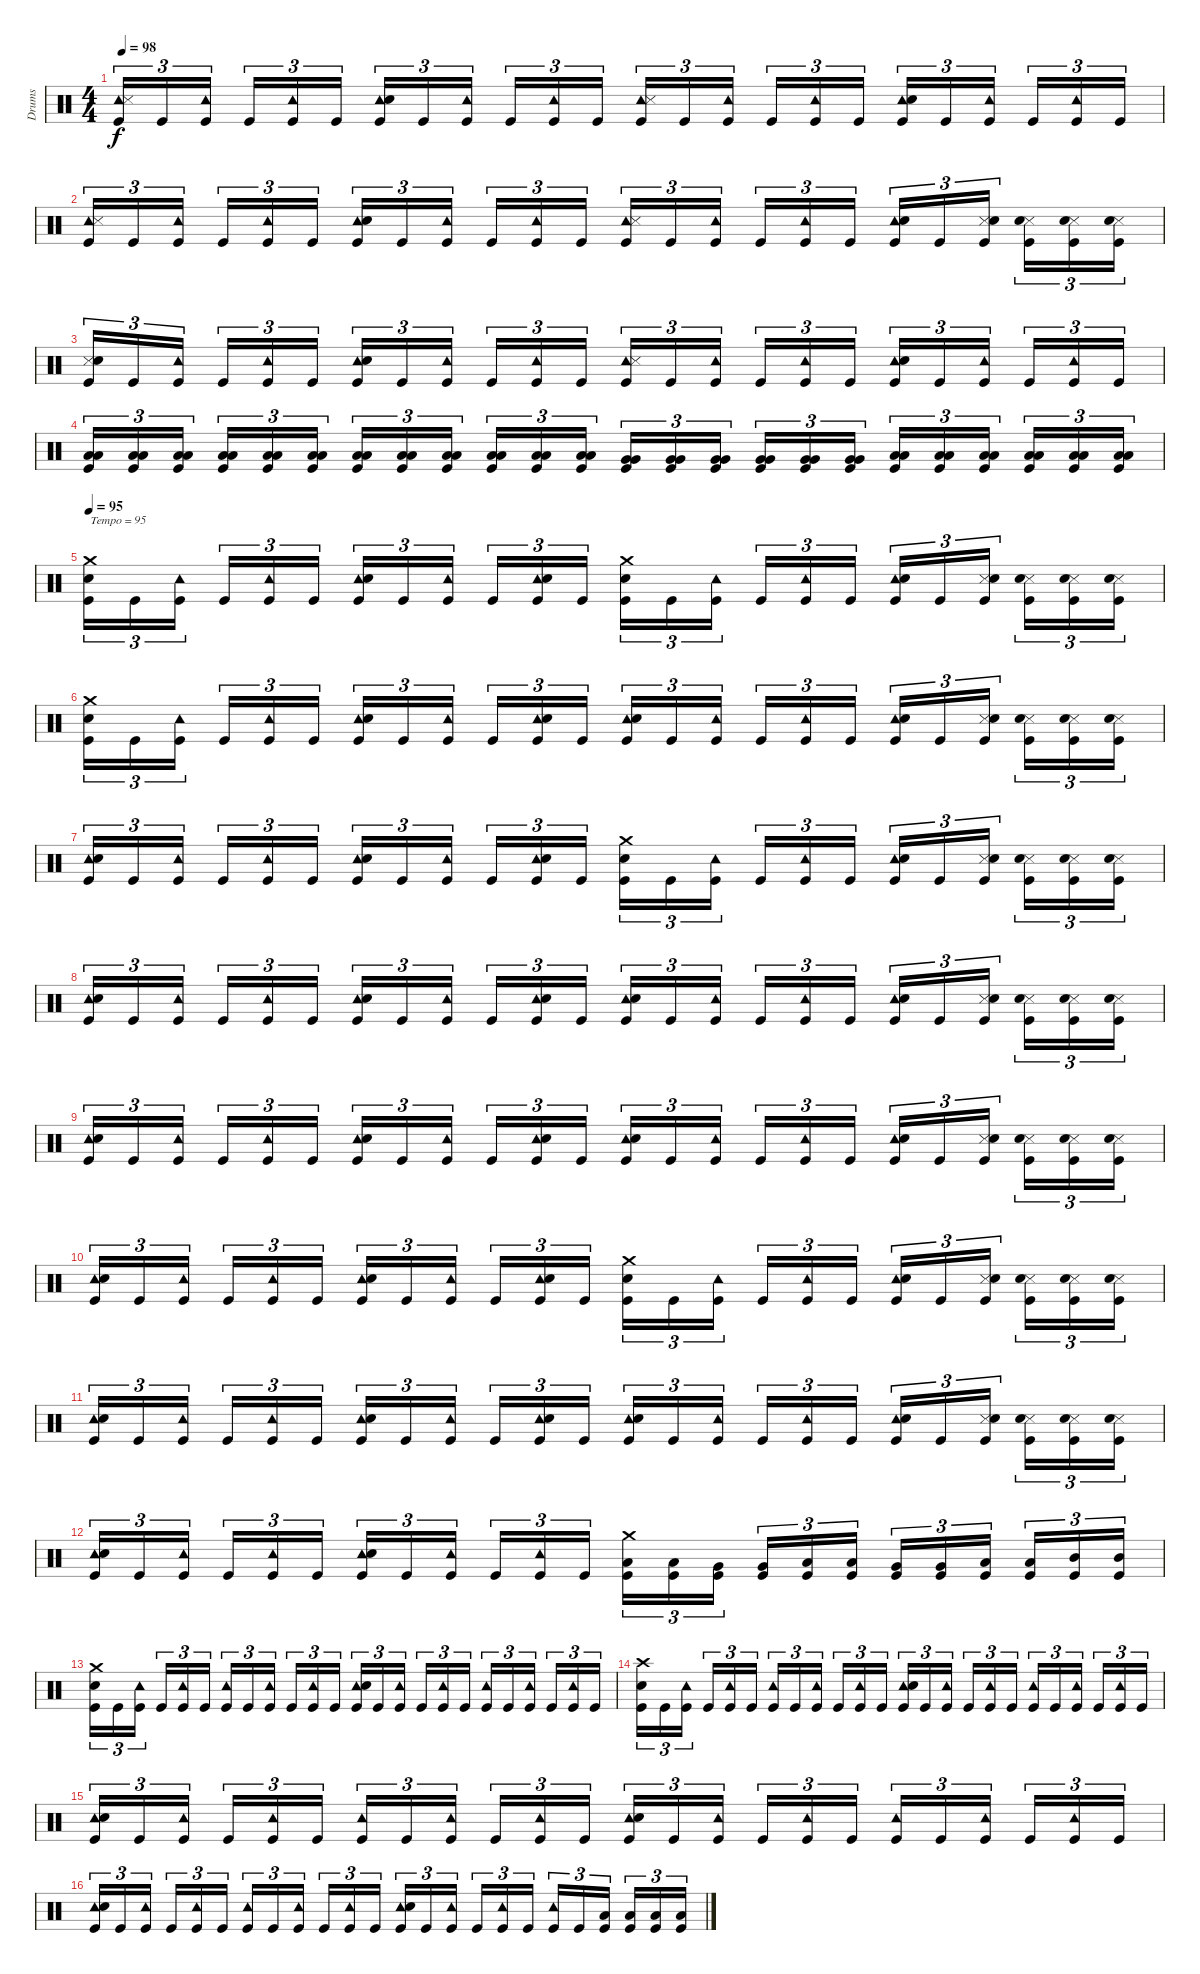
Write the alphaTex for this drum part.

\track ("Drums" "Drums") {instrument percussion}
\staff {score}
\articulation defaults
\ts (4 4)
\tempo 98
\clef neutral
\ks c
("Tambourine (hit)" "Snare (side stick) 3" "Kick (hit)").16{tu (3 2) dy f} "Kick (hit)".16{tu (3 2)} ("Tambourine (hit)" "Kick (hit)").16{tu (3 2)} "Kick (hit)".16{tu (3 2)} ("Tambourine (hit)" "Kick (hit)").16{tu (3 2)} "Kick (hit)".16{tu (3 2)} ("Tambourine (hit)" "Snare (hit) 2" "Kick (hit)").16{tu (3 2)} "Kick (hit)".16{tu (3 2)} ("Tambourine (hit)" "Kick (hit)").16{tu (3 2)} "Kick (hit)".16{tu (3 2)} ("Tambourine (hit)" "Kick (hit)").16{tu (3 2)} "Kick (hit)".16{tu (3 2)} ("Tambourine (hit)" "Snare (side stick) 3" "Kick (hit)").16{tu (3 2)} "Kick (hit)".16{tu (3 2)} ("Tambourine (hit)" "Kick (hit)").16{tu (3 2)} "Kick (hit)".16{tu (3 2)} ("Tambourine (hit)" "Kick (hit)").16{tu (3 2)} "Kick (hit)".16{tu (3 2)} ("Tambourine (hit)" "Snare (hit) 2" "Kick (hit)").16{tu (3 2)} "Kick (hit)".16{tu (3 2)} ("Tambourine (hit)" "Kick (hit)").16{tu (3 2)} "Kick (hit)".16{tu (3 2)} ("Tambourine (hit)" "Kick (hit)").16{tu (3 2)} "Kick (hit)".16{tu (3 2)} |
("Tambourine (hit)" "Snare (side stick) 3" "Kick (hit)").16{tu (3 2)} "Kick (hit)".16{tu (3 2)} ("Tambourine (hit)" "Kick (hit)").16{tu (3 2)} "Kick (hit)".16{tu (3 2)} ("Tambourine (hit)" "Kick (hit)").16{tu (3 2)} "Kick (hit)".16{tu (3 2)} ("Tambourine (hit)" "Snare (hit) 2" "Kick (hit)").16{tu (3 2)} "Kick (hit)".16{tu (3 2)} ("Tambourine (hit)" "Kick (hit)").16{tu (3 2)} "Kick (hit)".16{tu (3 2)} ("Tambourine (hit)" "Kick (hit)").16{tu (3 2)} "Kick (hit)".16{tu (3 2)} ("Tambourine (hit)" "Snare (side stick) 3" "Kick (hit)").16{tu (3 2)} "Kick (hit)".16{tu (3 2)} ("Tambourine (hit)" "Kick (hit)").16{tu (3 2)} "Kick (hit)".16{tu (3 2)} ("Tambourine (hit)" "Kick (hit)").16{tu (3 2)} "Kick (hit)".16{tu (3 2)} ("Tambourine (hit)" "Snare (hit) 2" "Kick (hit)").16{tu (3 2)} "Kick (hit)".16{tu (3 2)} ("Snare (side stick) 3" "Snare (hit) 2" "Kick (hit)").16{tu (3 2)} ("Snare (side stick) 3" "Snare (hit) 2" "Kick (hit)").16{tu (3 2)} ("Snare (side stick) 3" "Snare (hit) 2" "Kick (hit)").16{tu (3 2)} ("Snare (side stick) 3" "Snare (hit) 2" "Kick (hit)").16{tu (3 2)} |
("Snare (side stick) 3" "Snare (hit) 2" "Kick (hit)").16{tu (3 2)} "Kick (hit)".16{tu (3 2)} ("Tambourine (hit)" "Kick (hit)").16{tu (3 2)} "Kick (hit)".16{tu (3 2)} ("Tambourine (hit)" "Kick (hit)").16{tu (3 2)} "Kick (hit)".16{tu (3 2)} ("Tambourine (hit)" "Snare (hit) 2" "Kick (hit)").16{tu (3 2)} "Kick (hit)".16{tu (3 2)} ("Tambourine (hit)" "Kick (hit)").16{tu (3 2)} "Kick (hit)".16{tu (3 2)} ("Tambourine (hit)" "Kick (hit)").16{tu (3 2)} "Kick (hit)".16{tu (3 2)} ("Tambourine (hit)" "Snare (side stick) 3" "Kick (hit)").16{tu (3 2)} "Kick (hit)".16{tu (3 2)} ("Tambourine (hit)" "Kick (hit)").16{tu (3 2)} "Kick (hit)".16{tu (3 2)} ("Tambourine (hit)" "Kick (hit)").16{tu (3 2)} "Kick (hit)".16{tu (3 2)} ("Tambourine (hit)" "Snare (hit) 2" "Kick (hit)").16{tu (3 2)} "Kick (hit)".16{tu (3 2)} ("Tambourine (hit)" "Kick (hit)").16{tu (3 2)} "Kick (hit)".16{tu (3 2)} ("Tambourine (hit)" "Kick (hit)").16{tu (3 2)} "Kick (hit)".16{tu (3 2)} |
("Low Floor Tom (hit)" "Low Floor Tom (hit)" "Kick (hit)").16{tu (3 2)} ("Low Floor Tom (hit)" "Low Floor Tom (hit)" "Kick (hit)").16{tu (3 2)} ("Low Floor Tom (hit)" "Low Floor Tom (hit)" "Kick (hit)").16{tu (3 2)} ("Low Floor Tom (hit)" "Low Floor Tom (hit)" "Kick (hit)").16{tu (3 2)} ("Low Floor Tom (hit)" "Low Floor Tom (hit)" "Kick (hit)").16{tu (3 2)} ("Low Floor Tom (hit)" "Low Floor Tom (hit)" "Kick (hit)").16{tu (3 2)} ("Low Floor Tom (hit)" "Low Floor Tom (hit)" "Kick (hit)").16{tu (3 2)} ("Low Floor Tom (hit)" "Low Floor Tom (hit)" "Kick (hit)").16{tu (3 2)} ("Low Floor Tom (hit)" "Low Floor Tom (hit)" "Kick (hit)").16{tu (3 2)} ("Low Floor Tom (hit)" "Low Floor Tom (hit)" "Kick (hit)").16{tu (3 2)} ("Low Floor Tom (hit)" "Low Floor Tom (hit)" "Kick (hit)").16{tu (3 2)} ("Low Floor Tom (hit)" "Low Floor Tom (hit)" "Kick (hit)").16{tu (3 2)} ("Very Low Tom (hit)" "Very Low Tom (hit)" "Kick (hit)").16{tu (3 2)} ("Very Low Tom (hit)" "Very Low Tom (hit)" "Kick (hit)").16{tu (3 2)} ("Very Low Tom (hit)" "Very Low Tom (hit)" "Kick (hit)").16{tu (3 2)} ("Very Low Tom (hit)" "Very Low Tom (hit)" "Kick (hit)").16{tu (3 2)} ("Very Low Tom (hit)" "Very Low Tom (hit)" "Kick (hit)").16{tu (3 2)} ("Very Low Tom (hit)" "Very Low Tom (hit)" "Kick (hit)").16{tu (3 2)} ("Low Tom (hit)" "Low Tom (hit)" "Kick (hit)").16{tu (3 2)} ("Low Tom (hit)" "Low Tom (hit)" "Kick (hit)").16{tu (3 2)} ("Low Tom (hit)" "Low Tom (hit)" "Kick (hit)").16{tu (3 2)} ("Low Tom (hit)" "Low Tom (hit)" "Kick (hit)").16{tu (3 2)} ("Low Tom (hit)" "Low Tom (hit)" "Kick (hit)").16{tu (3 2)} ("Low Tom (hit)" "Low Tom (hit)" "Kick (hit)").16{tu (3 2)} |
\tempo 95
("Crash medium (hit)" "Snare (hit) 2" "Kick (hit)").16{tu (3 2) txt "Tempo = 95"} "Kick (hit)".16{tu (3 2)} ("Tambourine (hit)" "Kick (hit)").16{tu (3 2)} "Kick (hit)".16{tu (3 2)} ("Tambourine (hit)" "Kick (hit)").16{tu (3 2)} "Kick (hit)".16{tu (3 2)} ("Tambourine (hit)" "Snare (hit) 2" "Kick (hit)").16{tu (3 2)} "Kick (hit)".16{tu (3 2)} ("Tambourine (hit)" "Kick (hit)").16{tu (3 2)} "Kick (hit)".16{tu (3 2)} ("Tambourine (hit)" "Snare (hit) 2" "Kick (hit)").16{tu (3 2)} "Kick (hit)".16{tu (3 2)} ("Crash medium (hit)" "Snare (hit) 2" "Kick (hit)").16{tu (3 2)} "Kick (hit)".16{tu (3 2)} ("Tambourine (hit)" "Kick (hit)").16{tu (3 2)} "Kick (hit)".16{tu (3 2)} ("Tambourine (hit)" "Kick (hit)").16{tu (3 2)} "Kick (hit)".16{tu (3 2)} ("Tambourine (hit)" "Snare (hit) 2" "Kick (hit)").16{tu (3 2)} "Kick (hit)".16{tu (3 2)} ("Snare (side stick) 3" "Snare (hit) 2" "Kick (hit)").16{tu (3 2)} ("Snare (side stick) 3" "Snare (hit) 2" "Kick (hit)").16{tu (3 2)} ("Snare (side stick) 3" "Snare (hit) 2" "Kick (hit)").16{tu (3 2)} ("Snare (side stick) 3" "Snare (hit) 2" "Kick (hit)").16{tu (3 2)} |
("Crash medium (hit)" "Snare (hit) 2" "Kick (hit)").16{tu (3 2)} "Kick (hit)".16{tu (3 2)} ("Tambourine (hit)" "Kick (hit)").16{tu (3 2)} "Kick (hit)".16{tu (3 2)} ("Tambourine (hit)" "Kick (hit)").16{tu (3 2)} "Kick (hit)".16{tu (3 2)} ("Tambourine (hit)" "Snare (hit) 2" "Kick (hit)").16{tu (3 2)} "Kick (hit)".16{tu (3 2)} ("Tambourine (hit)" "Kick (hit)").16{tu (3 2)} "Kick (hit)".16{tu (3 2)} ("Tambourine (hit)" "Snare (hit) 2" "Kick (hit)").16{tu (3 2)} "Kick (hit)".16{tu (3 2)} ("Tambourine (hit)" "Snare (hit) 2" "Kick (hit)").16{tu (3 2)} "Kick (hit)".16{tu (3 2)} ("Tambourine (hit)" "Kick (hit)").16{tu (3 2)} "Kick (hit)".16{tu (3 2)} ("Tambourine (hit)" "Kick (hit)").16{tu (3 2)} "Kick (hit)".16{tu (3 2)} ("Tambourine (hit)" "Snare (hit) 2" "Kick (hit)").16{tu (3 2)} "Kick (hit)".16{tu (3 2)} ("Snare (side stick) 3" "Snare (hit) 2" "Kick (hit)").16{tu (3 2)} ("Snare (side stick) 3" "Snare (hit) 2" "Kick (hit)").16{tu (3 2)} ("Snare (side stick) 3" "Snare (hit) 2" "Kick (hit)").16{tu (3 2)} ("Snare (side stick) 3" "Snare (hit) 2" "Kick (hit)").16{tu (3 2)} |
("Tambourine (hit)" "Snare (hit) 2" "Kick (hit)").16{tu (3 2)} "Kick (hit)".16{tu (3 2)} ("Tambourine (hit)" "Kick (hit)").16{tu (3 2)} "Kick (hit)".16{tu (3 2)} ("Tambourine (hit)" "Kick (hit)").16{tu (3 2)} "Kick (hit)".16{tu (3 2)} ("Tambourine (hit)" "Snare (hit) 2" "Kick (hit)").16{tu (3 2)} "Kick (hit)".16{tu (3 2)} ("Tambourine (hit)" "Kick (hit)").16{tu (3 2)} "Kick (hit)".16{tu (3 2)} ("Tambourine (hit)" "Snare (hit) 2" "Kick (hit)").16{tu (3 2)} "Kick (hit)".16{tu (3 2)} ("Crash medium (hit)" "Snare (hit) 2" "Kick (hit)").16{tu (3 2)} "Kick (hit)".16{tu (3 2)} ("Tambourine (hit)" "Kick (hit)").16{tu (3 2)} "Kick (hit)".16{tu (3 2)} ("Tambourine (hit)" "Kick (hit)").16{tu (3 2)} "Kick (hit)".16{tu (3 2)} ("Tambourine (hit)" "Snare (hit) 2" "Kick (hit)").16{tu (3 2)} "Kick (hit)".16{tu (3 2)} ("Snare (side stick) 3" "Snare (hit) 2" "Kick (hit)").16{tu (3 2)} ("Snare (side stick) 3" "Snare (hit) 2" "Kick (hit)").16{tu (3 2)} ("Snare (side stick) 3" "Snare (hit) 2" "Kick (hit)").16{tu (3 2)} ("Snare (side stick) 3" "Snare (hit) 2" "Kick (hit)").16{tu (3 2)} |
("Tambourine (hit)" "Snare (hit) 2" "Kick (hit)").16{tu (3 2)} "Kick (hit)".16{tu (3 2)} ("Tambourine (hit)" "Kick (hit)").16{tu (3 2)} "Kick (hit)".16{tu (3 2)} ("Tambourine (hit)" "Kick (hit)").16{tu (3 2)} "Kick (hit)".16{tu (3 2)} ("Tambourine (hit)" "Snare (hit) 2" "Kick (hit)").16{tu (3 2)} "Kick (hit)".16{tu (3 2)} ("Tambourine (hit)" "Kick (hit)").16{tu (3 2)} "Kick (hit)".16{tu (3 2)} ("Tambourine (hit)" "Snare (hit) 2" "Kick (hit)").16{tu (3 2)} "Kick (hit)".16{tu (3 2)} ("Tambourine (hit)" "Snare (hit) 2" "Kick (hit)").16{tu (3 2)} "Kick (hit)".16{tu (3 2)} ("Tambourine (hit)" "Kick (hit)").16{tu (3 2)} "Kick (hit)".16{tu (3 2)} ("Tambourine (hit)" "Kick (hit)").16{tu (3 2)} "Kick (hit)".16{tu (3 2)} ("Tambourine (hit)" "Snare (hit) 2" "Kick (hit)").16{tu (3 2)} "Kick (hit)".16{tu (3 2)} ("Snare (side stick) 3" "Snare (hit) 2" "Kick (hit)").16{tu (3 2)} ("Snare (side stick) 3" "Snare (hit) 2" "Kick (hit)").16{tu (3 2)} ("Snare (side stick) 3" "Snare (hit) 2" "Kick (hit)").16{tu (3 2)} ("Snare (side stick) 3" "Snare (hit) 2" "Kick (hit)").16{tu (3 2)} |
("Tambourine (hit)" "Snare (hit) 2" "Kick (hit)").16{tu (3 2)} "Kick (hit)".16{tu (3 2)} ("Tambourine (hit)" "Kick (hit)").16{tu (3 2)} "Kick (hit)".16{tu (3 2)} ("Tambourine (hit)" "Kick (hit)").16{tu (3 2)} "Kick (hit)".16{tu (3 2)} ("Tambourine (hit)" "Snare (hit) 2" "Kick (hit)").16{tu (3 2)} "Kick (hit)".16{tu (3 2)} ("Tambourine (hit)" "Kick (hit)").16{tu (3 2)} "Kick (hit)".16{tu (3 2)} ("Tambourine (hit)" "Snare (hit) 2" "Kick (hit)").16{tu (3 2)} "Kick (hit)".16{tu (3 2)} ("Tambourine (hit)" "Snare (hit) 2" "Kick (hit)").16{tu (3 2)} "Kick (hit)".16{tu (3 2)} ("Tambourine (hit)" "Kick (hit)").16{tu (3 2)} "Kick (hit)".16{tu (3 2)} ("Tambourine (hit)" "Kick (hit)").16{tu (3 2)} "Kick (hit)".16{tu (3 2)} ("Tambourine (hit)" "Snare (hit) 2" "Kick (hit)").16{tu (3 2)} "Kick (hit)".16{tu (3 2)} ("Snare (side stick) 3" "Snare (hit) 2" "Kick (hit)").16{tu (3 2)} ("Snare (side stick) 3" "Snare (hit) 2" "Kick (hit)").16{tu (3 2)} ("Snare (side stick) 3" "Snare (hit) 2" "Kick (hit)").16{tu (3 2)} ("Snare (side stick) 3" "Snare (hit) 2" "Kick (hit)").16{tu (3 2)} |
("Tambourine (hit)" "Snare (hit) 2" "Kick (hit)").16{tu (3 2)} "Kick (hit)".16{tu (3 2)} ("Tambourine (hit)" "Kick (hit)").16{tu (3 2)} "Kick (hit)".16{tu (3 2)} ("Tambourine (hit)" "Kick (hit)").16{tu (3 2)} "Kick (hit)".16{tu (3 2)} ("Tambourine (hit)" "Snare (hit) 2" "Kick (hit)").16{tu (3 2)} "Kick (hit)".16{tu (3 2)} ("Tambourine (hit)" "Kick (hit)").16{tu (3 2)} "Kick (hit)".16{tu (3 2)} ("Tambourine (hit)" "Snare (hit) 2" "Kick (hit)").16{tu (3 2)} "Kick (hit)".16{tu (3 2)} ("Crash medium (hit)" "Snare (hit) 2" "Kick (hit)").16{tu (3 2)} "Kick (hit)".16{tu (3 2)} ("Tambourine (hit)" "Kick (hit)").16{tu (3 2)} "Kick (hit)".16{tu (3 2)} ("Tambourine (hit)" "Kick (hit)").16{tu (3 2)} "Kick (hit)".16{tu (3 2)} ("Tambourine (hit)" "Snare (hit) 2" "Kick (hit)").16{tu (3 2)} "Kick (hit)".16{tu (3 2)} ("Snare (side stick) 3" "Snare (hit) 2" "Kick (hit)").16{tu (3 2)} ("Snare (side stick) 3" "Snare (hit) 2" "Kick (hit)").16{tu (3 2)} ("Snare (side stick) 3" "Snare (hit) 2" "Kick (hit)").16{tu (3 2)} ("Snare (side stick) 3" "Snare (hit) 2" "Kick (hit)").16{tu (3 2)} |
("Tambourine (hit)" "Snare (hit) 2" "Kick (hit)").16{tu (3 2)} "Kick (hit)".16{tu (3 2)} ("Tambourine (hit)" "Kick (hit)").16{tu (3 2)} "Kick (hit)".16{tu (3 2)} ("Tambourine (hit)" "Kick (hit)").16{tu (3 2)} "Kick (hit)".16{tu (3 2)} ("Tambourine (hit)" "Snare (hit) 2" "Kick (hit)").16{tu (3 2)} "Kick (hit)".16{tu (3 2)} ("Tambourine (hit)" "Kick (hit)").16{tu (3 2)} "Kick (hit)".16{tu (3 2)} ("Tambourine (hit)" "Snare (hit) 2" "Kick (hit)").16{tu (3 2)} "Kick (hit)".16{tu (3 2)} ("Tambourine (hit)" "Snare (hit) 2" "Kick (hit)").16{tu (3 2)} "Kick (hit)".16{tu (3 2)} ("Tambourine (hit)" "Kick (hit)").16{tu (3 2)} "Kick (hit)".16{tu (3 2)} ("Tambourine (hit)" "Kick (hit)").16{tu (3 2)} "Kick (hit)".16{tu (3 2)} ("Tambourine (hit)" "Snare (hit) 2" "Kick (hit)").16{tu (3 2)} "Kick (hit)".16{tu (3 2)} ("Snare (side stick) 3" "Snare (hit) 2" "Kick (hit)").16{tu (3 2)} ("Snare (side stick) 3" "Snare (hit) 2" "Kick (hit)").16{tu (3 2)} ("Snare (side stick) 3" "Snare (hit) 2" "Kick (hit)").16{tu (3 2)} ("Snare (side stick) 3" "Snare (hit) 2" "Kick (hit)").16{tu (3 2)} |
("Tambourine (hit)" "Snare (hit) 2" "Kick (hit)").16{tu (3 2)} "Kick (hit)".16{tu (3 2)} ("Tambourine (hit)" "Kick (hit)").16{tu (3 2)} "Kick (hit)".16{tu (3 2)} ("Tambourine (hit)" "Kick (hit)").16{tu (3 2)} "Kick (hit)".16{tu (3 2)} ("Tambourine (hit)" "Snare (hit) 2" "Kick (hit)").16{tu (3 2)} "Kick (hit)".16{tu (3 2)} ("Tambourine (hit)" "Kick (hit)").16{tu (3 2)} "Kick (hit)".16{tu (3 2)} ("Tambourine (hit)" "Kick (hit)").16{tu (3 2)} "Kick (hit)".16{tu (3 2)} ("Crash medium (hit)" "Low Floor Tom (hit)" "Kick (hit)").16{tu (3 2)} ("Low Floor Tom (hit)" "Kick (hit)").16{tu (3 2)} ("Very Low Tom (hit)" "Kick (hit)").16{tu (3 2)} ("Very Low Tom (hit)" "Kick (hit)").16{tu (3 2)} ("Low Tom (hit)" "Kick (hit)").16{tu (3 2)} ("Low Tom (hit)" "Kick (hit)").16{tu (3 2)} ("Very Low Tom (hit)" "Kick (hit)").16{tu (3 2)} ("Very Low Tom (hit)" "Kick (hit)").16{tu (3 2)} ("Low Tom (hit)" "Kick (hit)").16{tu (3 2)} ("Low Tom (hit)" "Kick (hit)").16{tu (3 2)} ("Mid Tom (hit)" "Kick (hit)").16{tu (3 2)} ("Mid Tom (hit)" "Kick (hit)").16{tu (3 2)} |
("Crash medium (hit)" "Snare (hit) 2" "Kick (hit)").16{tu (3 2)} "Kick (hit)".16{tu (3 2)} ("Tambourine (hit)" "Kick (hit)").16{tu (3 2)} "Kick (hit)".16{tu (3 2)} ("Tambourine (hit)" "Kick (hit)").16{tu (3 2)} "Kick (hit)".16{tu (3 2)} ("Tambourine (hit)" "Kick (hit)").16{tu (3 2)} "Kick (hit)".16{tu (3 2)} ("Tambourine (hit)" "Kick (hit)").16{tu (3 2)} "Kick (hit)".16{tu (3 2)} ("Tambourine (hit)" "Kick (hit)").16{tu (3 2)} "Kick (hit)".16{tu (3 2)} ("Tambourine (hit)" "Snare (hit) 2" "Kick (hit)").16{tu (3 2)} "Kick (hit)".16{tu (3 2)} ("Tambourine (hit)" "Kick (hit)").16{tu (3 2)} "Kick (hit)".16{tu (3 2)} ("Tambourine (hit)" "Kick (hit)").16{tu (3 2)} "Kick (hit)".16{tu (3 2)} ("Tambourine (hit)" "Kick (hit)").16{tu (3 2)} "Kick (hit)".16{tu (3 2)} ("Tambourine (hit)" "Kick (hit)").16{tu (3 2)} "Kick (hit)".16{tu (3 2)} ("Tambourine (hit)" "Kick (hit)").16{tu (3 2)} "Kick (hit)".16{tu (3 2)} |
("Crash high (hit)" "Snare (hit) 2" "Kick (hit)").16{tu (3 2)} "Kick (hit)".16{tu (3 2)} ("Tambourine (hit)" "Kick (hit)").16{tu (3 2)} "Kick (hit)".16{tu (3 2)} ("Tambourine (hit)" "Kick (hit)").16{tu (3 2)} "Kick (hit)".16{tu (3 2)} ("Tambourine (hit)" "Kick (hit)").16{tu (3 2)} "Kick (hit)".16{tu (3 2)} ("Tambourine (hit)" "Kick (hit)").16{tu (3 2)} "Kick (hit)".16{tu (3 2)} ("Tambourine (hit)" "Kick (hit)").16{tu (3 2)} "Kick (hit)".16{tu (3 2)} ("Tambourine (hit)" "Snare (hit) 2" "Kick (hit)").16{tu (3 2)} "Kick (hit)".16{tu (3 2)} ("Tambourine (hit)" "Kick (hit)").16{tu (3 2)} "Kick (hit)".16{tu (3 2)} ("Tambourine (hit)" "Kick (hit)").16{tu (3 2)} "Kick (hit)".16{tu (3 2)} ("Tambourine (hit)" "Kick (hit)").16{tu (3 2)} "Kick (hit)".16{tu (3 2)} ("Tambourine (hit)" "Kick (hit)").16{tu (3 2)} "Kick (hit)".16{tu (3 2)} ("Tambourine (hit)" "Kick (hit)").16{tu (3 2)} "Kick (hit)".16{tu (3 2)} |
("Tambourine (hit)" "Snare (hit) 2" "Kick (hit)").16{tu (3 2)} "Kick (hit)".16{tu (3 2)} ("Tambourine (hit)" "Kick (hit)").16{tu (3 2)} "Kick (hit)".16{tu (3 2)} ("Tambourine (hit)" "Kick (hit)").16{tu (3 2)} "Kick (hit)".16{tu (3 2)} ("Tambourine (hit)" "Kick (hit)").16{tu (3 2)} "Kick (hit)".16{tu (3 2)} ("Tambourine (hit)" "Kick (hit)").16{tu (3 2)} "Kick (hit)".16{tu (3 2)} ("Tambourine (hit)" "Kick (hit)").16{tu (3 2)} "Kick (hit)".16{tu (3 2)} ("Tambourine (hit)" "Snare (hit) 2" "Kick (hit)").16{tu (3 2)} "Kick (hit)".16{tu (3 2)} ("Tambourine (hit)" "Kick (hit)").16{tu (3 2)} "Kick (hit)".16{tu (3 2)} ("Tambourine (hit)" "Kick (hit)").16{tu (3 2)} "Kick (hit)".16{tu (3 2)} ("Tambourine (hit)" "Kick (hit)").16{tu (3 2)} "Kick (hit)".16{tu (3 2)} ("Tambourine (hit)" "Kick (hit)").16{tu (3 2)} "Kick (hit)".16{tu (3 2)} ("Tambourine (hit)" "Kick (hit)").16{tu (3 2)} "Kick (hit)".16{tu (3 2)} |
("Tambourine (hit)" "Snare (hit) 2" "Kick (hit)").16{tu (3 2)} "Kick (hit)".16{tu (3 2)} ("Tambourine (hit)" "Kick (hit)").16{tu (3 2)} "Kick (hit)".16{tu (3 2)} ("Tambourine (hit)" "Kick (hit)").16{tu (3 2)} "Kick (hit)".16{tu (3 2)} ("Tambourine (hit)" "Kick (hit)").16{tu (3 2)} "Kick (hit)".16{tu (3 2)} ("Tambourine (hit)" "Kick (hit)").16{tu (3 2)} "Kick (hit)".16{tu (3 2)} ("Tambourine (hit)" "Kick (hit)").16{tu (3 2)} "Kick (hit)".16{tu (3 2)} ("Tambourine (hit)" "Snare (hit) 2" "Kick (hit)").16{tu (3 2)} "Kick (hit)".16{tu (3 2)} ("Tambourine (hit)" "Kick (hit)").16{tu (3 2)} "Kick (hit)".16{tu (3 2)} ("Tambourine (hit)" "Kick (hit)").16{tu (3 2)} "Kick (hit)".16{tu (3 2)} ("Tambourine (hit)" "Kick (hit)").16{tu (3 2)} "Kick (hit)".16{tu (3 2)} ("Low Floor Tom (hit)" "Kick (hit)").16{tu (3 2)} ("Low Floor Tom (hit)" "Kick (hit)").16{tu (3 2)} ("Low Floor Tom (hit)" "Kick (hit)").16{tu (3 2)} ("Low Floor Tom (hit)" "Kick (hit)").16{tu (3 2)}
